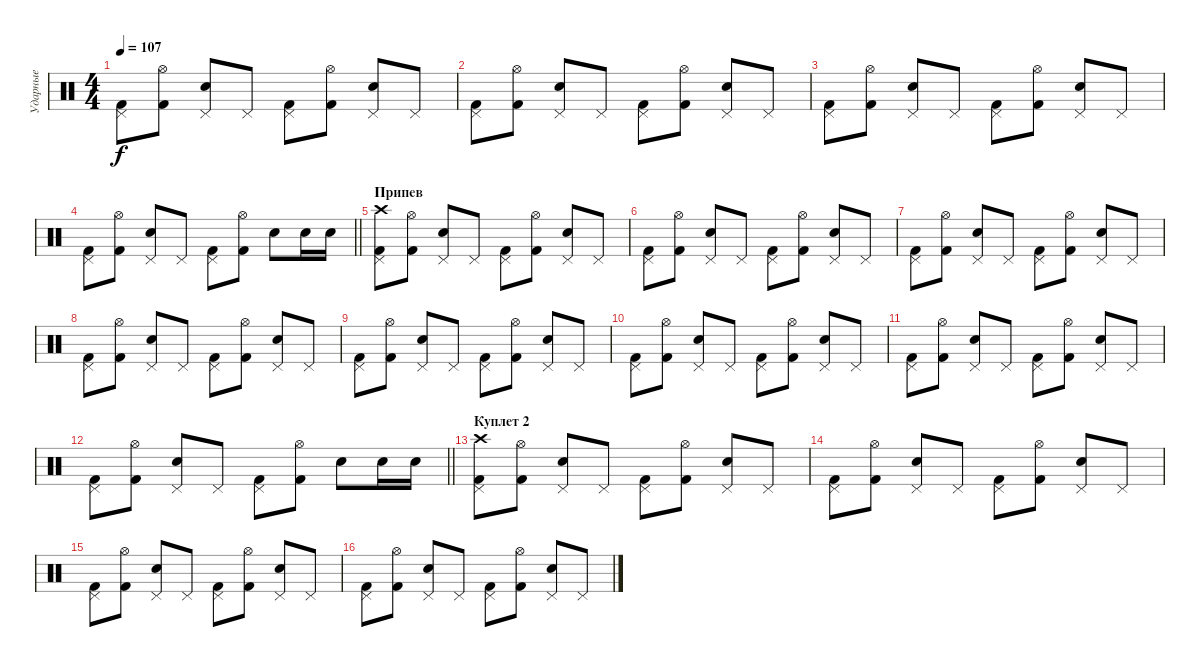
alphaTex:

\track ("Ударные" "Ударные") {instrument percussion}
\staff {score}
\articulation defaults
\ts (4 4)
\tempo 107
\clef neutral
\ks c
("Kick (hit) 2" "Pedal Hi-Hat (hit)").8{dy f} ("Kick (hit) 2" "Hi-Hat (open)").8 ("Pedal Hi-Hat (hit)" "Snare (hit) 2").8 "Pedal Hi-Hat (hit)".8 ("Kick (hit) 2" "Pedal Hi-Hat (hit)").8 ("Kick (hit) 2" "Hi-Hat (open)").8 ("Pedal Hi-Hat (hit)" "Snare (hit) 2").8 "Pedal Hi-Hat (hit)".8 |
("Kick (hit) 2" "Pedal Hi-Hat (hit)").8 ("Kick (hit) 2" "Hi-Hat (open)").8 ("Pedal Hi-Hat (hit)" "Snare (hit) 2").8 "Pedal Hi-Hat (hit)".8 ("Kick (hit) 2" "Pedal Hi-Hat (hit)").8 ("Kick (hit) 2" "Hi-Hat (open)").8 ("Pedal Hi-Hat (hit)" "Snare (hit) 2").8 "Pedal Hi-Hat (hit)".8 |
("Kick (hit) 2" "Pedal Hi-Hat (hit)").8 ("Kick (hit) 2" "Hi-Hat (open)").8 ("Pedal Hi-Hat (hit)" "Snare (hit) 2").8 "Pedal Hi-Hat (hit)".8 ("Kick (hit) 2" "Pedal Hi-Hat (hit)").8 ("Kick (hit) 2" "Hi-Hat (open)").8 ("Pedal Hi-Hat (hit)" "Snare (hit) 2").8 "Pedal Hi-Hat (hit)".8 |
\barLineRight lightlight
("Kick (hit) 2" "Pedal Hi-Hat (hit)").8 ("Kick (hit) 2" "Hi-Hat (open)").8 ("Pedal Hi-Hat (hit)" "Snare (hit) 2").8 "Pedal Hi-Hat (hit)".8 ("Kick (hit) 2" "Pedal Hi-Hat (hit)").8 ("Kick (hit) 2" "Hi-Hat (open)").8 "Snare (hit) 2".8 "Snare (hit) 2".16 "Snare (hit) 2".16 |
\section ("" "Припев")
("Kick (hit) 2" "Pedal Hi-Hat (hit)" "Crash high (hit)").8 ("Kick (hit) 2" "Hi-Hat (open)").8 ("Pedal Hi-Hat (hit)" "Snare (hit) 2").8 "Pedal Hi-Hat (hit)".8 ("Kick (hit) 2" "Pedal Hi-Hat (hit)").8 ("Kick (hit) 2" "Hi-Hat (open)").8 ("Pedal Hi-Hat (hit)" "Snare (hit) 2").8 "Pedal Hi-Hat (hit)".8 |
("Kick (hit) 2" "Pedal Hi-Hat (hit)").8 ("Kick (hit) 2" "Hi-Hat (open)").8 ("Pedal Hi-Hat (hit)" "Snare (hit) 2").8 "Pedal Hi-Hat (hit)".8 ("Kick (hit) 2" "Pedal Hi-Hat (hit)").8 ("Kick (hit) 2" "Hi-Hat (open)").8 ("Pedal Hi-Hat (hit)" "Snare (hit) 2").8 "Pedal Hi-Hat (hit)".8 |
("Kick (hit) 2" "Pedal Hi-Hat (hit)").8 ("Kick (hit) 2" "Hi-Hat (open)").8 ("Pedal Hi-Hat (hit)" "Snare (hit) 2").8 "Pedal Hi-Hat (hit)".8 ("Kick (hit) 2" "Pedal Hi-Hat (hit)").8 ("Kick (hit) 2" "Hi-Hat (open)").8 ("Pedal Hi-Hat (hit)" "Snare (hit) 2").8 "Pedal Hi-Hat (hit)".8 |
("Kick (hit) 2" "Pedal Hi-Hat (hit)").8 ("Kick (hit) 2" "Hi-Hat (open)").8 ("Pedal Hi-Hat (hit)" "Snare (hit) 2").8 "Pedal Hi-Hat (hit)".8 ("Kick (hit) 2" "Pedal Hi-Hat (hit)").8 ("Kick (hit) 2" "Hi-Hat (open)").8 ("Pedal Hi-Hat (hit)" "Snare (hit) 2").8 "Pedal Hi-Hat (hit)".8 |
("Kick (hit) 2" "Pedal Hi-Hat (hit)").8 ("Kick (hit) 2" "Hi-Hat (open)").8 ("Pedal Hi-Hat (hit)" "Snare (hit) 2").8 "Pedal Hi-Hat (hit)".8 ("Kick (hit) 2" "Pedal Hi-Hat (hit)").8 ("Kick (hit) 2" "Hi-Hat (open)").8 ("Pedal Hi-Hat (hit)" "Snare (hit) 2").8 "Pedal Hi-Hat (hit)".8 |
("Kick (hit) 2" "Pedal Hi-Hat (hit)").8 ("Kick (hit) 2" "Hi-Hat (open)").8 ("Pedal Hi-Hat (hit)" "Snare (hit) 2").8 "Pedal Hi-Hat (hit)".8 ("Kick (hit) 2" "Pedal Hi-Hat (hit)").8 ("Kick (hit) 2" "Hi-Hat (open)").8 ("Pedal Hi-Hat (hit)" "Snare (hit) 2").8 "Pedal Hi-Hat (hit)".8 |
("Kick (hit) 2" "Pedal Hi-Hat (hit)").8 ("Kick (hit) 2" "Hi-Hat (open)").8 ("Pedal Hi-Hat (hit)" "Snare (hit) 2").8 "Pedal Hi-Hat (hit)".8 ("Kick (hit) 2" "Pedal Hi-Hat (hit)").8 ("Kick (hit) 2" "Hi-Hat (open)").8 ("Pedal Hi-Hat (hit)" "Snare (hit) 2").8 "Pedal Hi-Hat (hit)".8 |
\barLineRight lightlight
("Kick (hit) 2" "Pedal Hi-Hat (hit)").8 ("Kick (hit) 2" "Hi-Hat (open)").8 ("Pedal Hi-Hat (hit)" "Snare (hit) 2").8 "Pedal Hi-Hat (hit)".8 ("Kick (hit) 2" "Pedal Hi-Hat (hit)").8 ("Kick (hit) 2" "Hi-Hat (open)").8 "Snare (hit) 2".8 "Snare (hit) 2".16 "Snare (hit) 2".16 |
\section ("" "Куплет 2")
("Kick (hit) 2" "Pedal Hi-Hat (hit)" "Crash high (hit)").8 ("Kick (hit) 2" "Hi-Hat (open)").8 ("Pedal Hi-Hat (hit)" "Snare (hit) 2").8 "Pedal Hi-Hat (hit)".8 ("Kick (hit) 2" "Pedal Hi-Hat (hit)").8 ("Kick (hit) 2" "Hi-Hat (open)").8 ("Pedal Hi-Hat (hit)" "Snare (hit) 2").8 "Pedal Hi-Hat (hit)".8 |
("Kick (hit) 2" "Pedal Hi-Hat (hit)").8 ("Kick (hit) 2" "Hi-Hat (open)").8 ("Pedal Hi-Hat (hit)" "Snare (hit) 2").8 "Pedal Hi-Hat (hit)".8 ("Kick (hit) 2" "Pedal Hi-Hat (hit)").8 ("Kick (hit) 2" "Hi-Hat (open)").8 ("Pedal Hi-Hat (hit)" "Snare (hit) 2").8 "Pedal Hi-Hat (hit)".8 |
("Kick (hit) 2" "Pedal Hi-Hat (hit)").8 ("Kick (hit) 2" "Hi-Hat (open)").8 ("Pedal Hi-Hat (hit)" "Snare (hit) 2").8 "Pedal Hi-Hat (hit)".8 ("Kick (hit) 2" "Pedal Hi-Hat (hit)").8 ("Kick (hit) 2" "Hi-Hat (open)").8 ("Pedal Hi-Hat (hit)" "Snare (hit) 2").8 "Pedal Hi-Hat (hit)".8 |
("Kick (hit) 2" "Pedal Hi-Hat (hit)").8 ("Kick (hit) 2" "Hi-Hat (open)").8 ("Pedal Hi-Hat (hit)" "Snare (hit) 2").8 "Pedal Hi-Hat (hit)".8 ("Kick (hit) 2" "Pedal Hi-Hat (hit)").8 ("Kick (hit) 2" "Hi-Hat (open)").8 ("Pedal Hi-Hat (hit)" "Snare (hit) 2").8 "Pedal Hi-Hat (hit)".8
